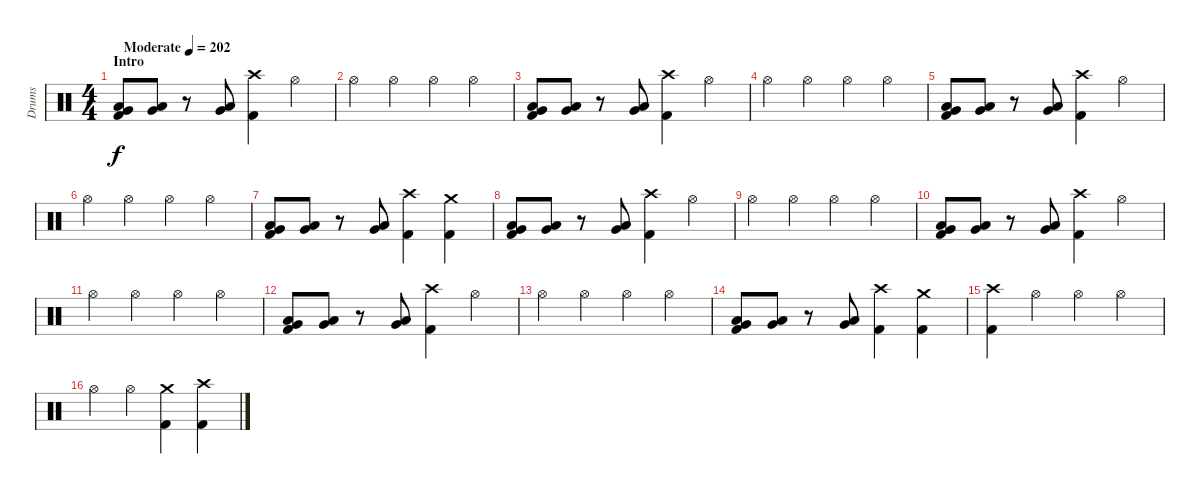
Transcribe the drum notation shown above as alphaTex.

\track ("Drums" "Drums") {instrument percussion}
\staff {score}
\articulation defaults
\ts (4 4)
\section ("" "Intro")
\tempo (202 "Moderate")
\clef neutral
\ks c
("Very Low Tom (hit)" "Low Floor Tom (hit)" "Kick (hit) 2").8{dy f} ("Very Low Tom (hit)" "Low Floor Tom (hit)").8 r.8 ("Very Low Tom (hit)" "Low Floor Tom (hit)").8 ("Crash high (hit)" "Kick (hit) 2").4 "Hi-Hat (open)".4 |
"Hi-Hat (open)".4 "Hi-Hat (open)".4 "Hi-Hat (open)".4 "Hi-Hat (open)".4 |
("Very Low Tom (hit)" "Low Floor Tom (hit)" "Kick (hit) 2").8 ("Very Low Tom (hit)" "Low Floor Tom (hit)").8 r.8 ("Very Low Tom (hit)" "Low Floor Tom (hit)").8 ("Crash high (hit)" "Kick (hit) 2").4 "Hi-Hat (open)".4 |
"Hi-Hat (open)".4 "Hi-Hat (open)".4 "Hi-Hat (open)".4 "Hi-Hat (open)".4 |
("Very Low Tom (hit)" "Low Floor Tom (hit)" "Kick (hit) 2").8 ("Very Low Tom (hit)" "Low Floor Tom (hit)").8 r.8 ("Very Low Tom (hit)" "Low Floor Tom (hit)").8 ("Crash high (hit)" "Kick (hit) 2").4 "Hi-Hat (open)".4 |
"Hi-Hat (open)".4 "Hi-Hat (open)".4 "Hi-Hat (open)".4 "Hi-Hat (open)".4 |
("Very Low Tom (hit)" "Low Floor Tom (hit)" "Kick (hit) 2").8 ("Very Low Tom (hit)" "Low Floor Tom (hit)").8 r.8 ("Very Low Tom (hit)" "Low Floor Tom (hit)").8 ("Crash high (hit)" "Kick (hit) 2").4 ("Crash medium (hit)" "Kick (hit) 2").4 |
("Very Low Tom (hit)" "Low Floor Tom (hit)" "Kick (hit) 2").8 ("Very Low Tom (hit)" "Low Floor Tom (hit)").8 r.8 ("Very Low Tom (hit)" "Low Floor Tom (hit)").8 ("Crash high (hit)" "Kick (hit) 2").4 "Hi-Hat (open)".4 |
"Hi-Hat (open)".4 "Hi-Hat (open)".4 "Hi-Hat (open)".4 "Hi-Hat (open)".4 |
("Very Low Tom (hit)" "Low Floor Tom (hit)" "Kick (hit) 2").8 ("Very Low Tom (hit)" "Low Floor Tom (hit)").8 r.8 ("Very Low Tom (hit)" "Low Floor Tom (hit)").8 ("Crash high (hit)" "Kick (hit) 2").4 "Hi-Hat (open)".4 |
"Hi-Hat (open)".4 "Hi-Hat (open)".4 "Hi-Hat (open)".4 "Hi-Hat (open)".4 |
("Very Low Tom (hit)" "Low Floor Tom (hit)" "Kick (hit) 2").8 ("Very Low Tom (hit)" "Low Floor Tom (hit)").8 r.8 ("Very Low Tom (hit)" "Low Floor Tom (hit)").8 ("Crash high (hit)" "Kick (hit) 2").4 "Hi-Hat (open)".4 |
"Hi-Hat (open)".4 "Hi-Hat (open)".4 "Hi-Hat (open)".4 "Hi-Hat (open)".4 |
("Very Low Tom (hit)" "Low Floor Tom (hit)" "Kick (hit) 2").8 ("Very Low Tom (hit)" "Low Floor Tom (hit)").8 r.8 ("Very Low Tom (hit)" "Low Floor Tom (hit)").8 ("Crash high (hit)" "Kick (hit) 2").4 ("Crash medium (hit)" "Kick (hit) 2").4 |
("Crash high (hit)" "Kick (hit) 2").4 "Hi-Hat (open)".4 "Hi-Hat (open)".4 "Hi-Hat (open)".4 |
"Hi-Hat (open)".4 "Hi-Hat (open)".4 ("Crash medium (hit)" "Kick (hit) 2").4 ("Crash high (hit)" "Kick (hit) 2").4
